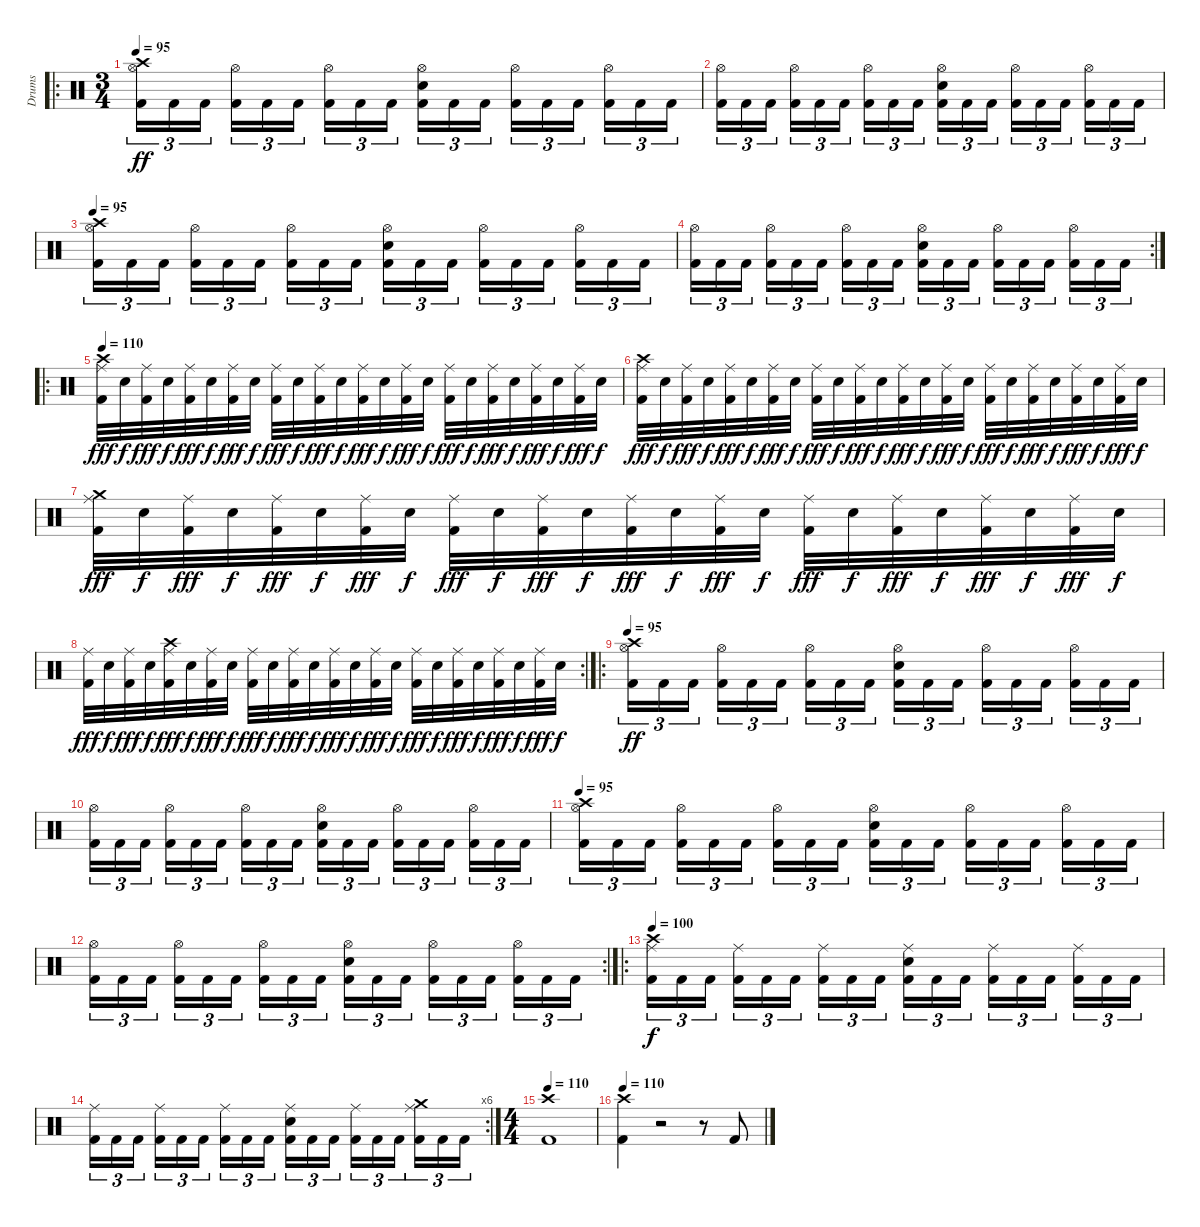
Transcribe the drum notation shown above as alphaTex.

\track ("Drums" "Drums") {instrument percussion}
\staff {score}
\articulation defaults
\ro
\ts (3 4)
\tempo 95
\clef neutral
\ks c
("Crash high (hit)" "Hi-Hat (open)" "Kick (hit) 2").16{tu (3 2) dy ff} "Kick (hit) 2".16{tu (3 2)} "Kick (hit) 2".16{tu (3 2)} ("Hi-Hat (open)" "Kick (hit) 2").16{tu (3 2)} "Kick (hit) 2".16{tu (3 2)} "Kick (hit) 2".16{tu (3 2)} ("Hi-Hat (open)" "Kick (hit) 2").16{tu (3 2)} "Kick (hit) 2".16{tu (3 2)} "Kick (hit) 2".16{tu (3 2)} ("Hi-Hat (open)" "Electric Snare (hit)" "Kick (hit) 2").16{tu (3 2)} "Kick (hit) 2".16{tu (3 2)} "Kick (hit) 2".16{tu (3 2)} ("Hi-Hat (open)" "Kick (hit) 2").16{tu (3 2)} "Kick (hit) 2".16{tu (3 2)} "Kick (hit) 2".16{tu (3 2)} ("Hi-Hat (open)" "Kick (hit) 2").16{tu (3 2)} "Kick (hit) 2".16{tu (3 2)} "Kick (hit) 2".16{tu (3 2)} |
("Hi-Hat (open)" "Kick (hit) 2").16{tu (3 2)} "Kick (hit) 2".16{tu (3 2)} "Kick (hit) 2".16{tu (3 2)} ("Hi-Hat (open)" "Kick (hit) 2").16{tu (3 2)} "Kick (hit) 2".16{tu (3 2)} "Kick (hit) 2".16{tu (3 2)} ("Hi-Hat (open)" "Kick (hit) 2").16{tu (3 2)} "Kick (hit) 2".16{tu (3 2)} "Kick (hit) 2".16{tu (3 2)} ("Hi-Hat (open)" "Electric Snare (hit)" "Kick (hit) 2").16{tu (3 2)} "Kick (hit) 2".16{tu (3 2)} "Kick (hit) 2".16{tu (3 2)} ("Hi-Hat (open)" "Kick (hit) 2").16{tu (3 2)} "Kick (hit) 2".16{tu (3 2)} "Kick (hit) 2".16{tu (3 2)} ("Hi-Hat (open)" "Kick (hit) 2").16{tu (3 2)} "Kick (hit) 2".16{tu (3 2)} "Kick (hit) 2".16{tu (3 2)} |
\tempo 95
("Crash high (hit)" "Hi-Hat (open)" "Kick (hit) 2").16{tu (3 2)} "Kick (hit) 2".16{tu (3 2)} "Kick (hit) 2".16{tu (3 2)} ("Hi-Hat (open)" "Kick (hit) 2").16{tu (3 2)} "Kick (hit) 2".16{tu (3 2)} "Kick (hit) 2".16{tu (3 2)} ("Hi-Hat (open)" "Kick (hit) 2").16{tu (3 2)} "Kick (hit) 2".16{tu (3 2)} "Kick (hit) 2".16{tu (3 2)} ("Hi-Hat (open)" "Electric Snare (hit)" "Kick (hit) 2").16{tu (3 2)} "Kick (hit) 2".16{tu (3 2)} "Kick (hit) 2".16{tu (3 2)} ("Hi-Hat (open)" "Kick (hit) 2").16{tu (3 2)} "Kick (hit) 2".16{tu (3 2)} "Kick (hit) 2".16{tu (3 2)} ("Hi-Hat (open)" "Kick (hit) 2").16{tu (3 2)} "Kick (hit) 2".16{tu (3 2)} "Kick (hit) 2".16{tu (3 2)} |
\rc 2
("Hi-Hat (open)" "Kick (hit) 2").16{tu (3 2)} "Kick (hit) 2".16{tu (3 2)} "Kick (hit) 2".16{tu (3 2)} ("Hi-Hat (open)" "Kick (hit) 2").16{tu (3 2)} "Kick (hit) 2".16{tu (3 2)} "Kick (hit) 2".16{tu (3 2)} ("Hi-Hat (open)" "Kick (hit) 2").16{tu (3 2)} "Kick (hit) 2".16{tu (3 2)} "Kick (hit) 2".16{tu (3 2)} ("Hi-Hat (open)" "Electric Snare (hit)" "Kick (hit) 2").16{tu (3 2)} "Kick (hit) 2".16{tu (3 2)} "Kick (hit) 2".16{tu (3 2)} ("Hi-Hat (open)" "Kick (hit) 2").16{tu (3 2)} "Kick (hit) 2".16{tu (3 2)} "Kick (hit) 2".16{tu (3 2)} ("Hi-Hat (open)" "Kick (hit) 2").16{tu (3 2)} "Kick (hit) 2".16{tu (3 2)} "Kick (hit) 2".16{tu (3 2)} |
\ro
\tempo 110
("Crash high (hit)" "Ride (middle)" "Kick (hit) 2").32{dy fff} "Electric Snare (hit)".32{dy f} ("Ride (middle)" "Kick (hit) 2").32{dy fff} "Electric Snare (hit)".32{dy f} ("Ride (middle)" "Kick (hit) 2").32{dy fff} "Electric Snare (hit)".32{dy f} ("Ride (middle)" "Kick (hit) 2").32{dy fff} "Electric Snare (hit)".32{dy f} ("Ride (middle)" "Kick (hit) 2").32{dy fff} "Electric Snare (hit)".32{dy f} ("Ride (middle)" "Kick (hit) 2").32{dy fff} "Electric Snare (hit)".32{dy f} ("Ride (middle)" "Kick (hit) 2").32{dy fff} "Electric Snare (hit)".32{dy f} ("Ride (middle)" "Kick (hit) 2").32{dy fff} "Electric Snare (hit)".32{dy f} ("Ride (middle)" "Kick (hit) 2").32{dy fff} "Electric Snare (hit)".32{dy f} ("Ride (middle)" "Kick (hit) 2").32{dy fff} "Electric Snare (hit)".32{dy f} ("Ride (middle)" "Kick (hit) 2").32{dy fff} "Electric Snare (hit)".32{dy f} ("Ride (middle)" "Kick (hit) 2").32{dy fff} "Electric Snare (hit)".32{dy f} |
("Crash high (hit)" "Ride (middle)" "Kick (hit) 2").32{dy fff} "Electric Snare (hit)".32{dy f} ("Ride (middle)" "Kick (hit) 2").32{dy fff} "Electric Snare (hit)".32{dy f} ("Ride (middle)" "Kick (hit) 2").32{dy fff} "Electric Snare (hit)".32{dy f} ("Ride (middle)" "Kick (hit) 2").32{dy fff} "Electric Snare (hit)".32{dy f} ("Ride (middle)" "Kick (hit) 2").32{dy fff} "Electric Snare (hit)".32{dy f} ("Ride (middle)" "Kick (hit) 2").32{dy fff} "Electric Snare (hit)".32{dy f} ("Ride (middle)" "Kick (hit) 2").32{dy fff} "Electric Snare (hit)".32{dy f} ("Ride (middle)" "Kick (hit) 2").32{dy fff} "Electric Snare (hit)".32{dy f} ("Ride (middle)" "Kick (hit) 2").32{dy fff} "Electric Snare (hit)".32{dy f} ("Ride (middle)" "Kick (hit) 2").32{dy fff} "Electric Snare (hit)".32{dy f} ("Ride (middle)" "Kick (hit) 2").32{dy fff} "Electric Snare (hit)".32{dy f} ("Ride (middle)" "Kick (hit) 2").32{dy fff} "Electric Snare (hit)".32{dy f} |
("Crash medium (hit)" "Ride (middle)" "Kick (hit) 2").32{dy fff} "Electric Snare (hit)".32{dy f} ("Ride (middle)" "Kick (hit) 2").32{dy fff} "Electric Snare (hit)".32{dy f} ("Ride (middle)" "Kick (hit) 2").32{dy fff} "Electric Snare (hit)".32{dy f} ("Ride (middle)" "Kick (hit) 2").32{dy fff} "Electric Snare (hit)".32{dy f} ("Ride (middle)" "Kick (hit) 2").32{dy fff} "Electric Snare (hit)".32{dy f} ("Ride (middle)" "Kick (hit) 2").32{dy fff} "Electric Snare (hit)".32{dy f} ("Ride (middle)" "Kick (hit) 2").32{dy fff} "Electric Snare (hit)".32{dy f} ("Ride (middle)" "Kick (hit) 2").32{dy fff} "Electric Snare (hit)".32{dy f} ("Ride (middle)" "Kick (hit) 2").32{dy fff} "Electric Snare (hit)".32{dy f} ("Ride (middle)" "Kick (hit) 2").32{dy fff} "Electric Snare (hit)".32{dy f} ("Ride (middle)" "Kick (hit) 2").32{dy fff} "Electric Snare (hit)".32{dy f} ("Ride (middle)" "Kick (hit) 2").32{dy fff} "Electric Snare (hit)".32{dy f} |
\rc 2
("Ride (middle)" "Kick (hit) 2").32{dy fff} "Electric Snare (hit)".32{dy f} ("Ride (middle)" "Kick (hit) 2").32{dy fff} "Electric Snare (hit)".32{dy f} ("Crash high (hit)" "Ride (middle)" "Kick (hit) 2").32{dy fff} "Electric Snare (hit)".32{dy f} ("Ride (middle)" "Kick (hit) 2").32{dy fff} "Electric Snare (hit)".32{dy f} ("Ride (middle)" "Kick (hit) 2").32{dy fff} "Electric Snare (hit)".32{dy f} ("Ride (middle)" "Kick (hit) 2").32{dy fff} "Electric Snare (hit)".32{dy f} ("Ride (middle)" "Kick (hit) 2").32{dy fff} "Electric Snare (hit)".32{dy f} ("Ride (middle)" "Kick (hit) 2").32{dy fff} "Electric Snare (hit)".32{dy f} ("Ride (middle)" "Kick (hit) 2").32{dy fff} "Electric Snare (hit)".32{dy f} ("Ride (middle)" "Kick (hit) 2").32{dy fff} "Electric Snare (hit)".32{dy f} ("Ride (middle)" "Kick (hit) 2").32{dy fff} "Electric Snare (hit)".32{dy f} ("Ride (middle)" "Kick (hit) 2").32{dy fff} "Electric Snare (hit)".32{dy f} |
\ro
\tempo 95
("Crash high (hit)" "Hi-Hat (open)" "Kick (hit) 2").16{tu (3 2) dy ff} "Kick (hit) 2".16{tu (3 2)} "Kick (hit) 2".16{tu (3 2)} ("Hi-Hat (open)" "Kick (hit) 2").16{tu (3 2)} "Kick (hit) 2".16{tu (3 2)} "Kick (hit) 2".16{tu (3 2)} ("Hi-Hat (open)" "Kick (hit) 2").16{tu (3 2)} "Kick (hit) 2".16{tu (3 2)} "Kick (hit) 2".16{tu (3 2)} ("Hi-Hat (open)" "Electric Snare (hit)" "Kick (hit) 2").16{tu (3 2)} "Kick (hit) 2".16{tu (3 2)} "Kick (hit) 2".16{tu (3 2)} ("Hi-Hat (open)" "Kick (hit) 2").16{tu (3 2)} "Kick (hit) 2".16{tu (3 2)} "Kick (hit) 2".16{tu (3 2)} ("Hi-Hat (open)" "Kick (hit) 2").16{tu (3 2)} "Kick (hit) 2".16{tu (3 2)} "Kick (hit) 2".16{tu (3 2)} |
("Hi-Hat (open)" "Kick (hit) 2").16{tu (3 2)} "Kick (hit) 2".16{tu (3 2)} "Kick (hit) 2".16{tu (3 2)} ("Hi-Hat (open)" "Kick (hit) 2").16{tu (3 2)} "Kick (hit) 2".16{tu (3 2)} "Kick (hit) 2".16{tu (3 2)} ("Hi-Hat (open)" "Kick (hit) 2").16{tu (3 2)} "Kick (hit) 2".16{tu (3 2)} "Kick (hit) 2".16{tu (3 2)} ("Hi-Hat (open)" "Electric Snare (hit)" "Kick (hit) 2").16{tu (3 2)} "Kick (hit) 2".16{tu (3 2)} "Kick (hit) 2".16{tu (3 2)} ("Hi-Hat (open)" "Kick (hit) 2").16{tu (3 2)} "Kick (hit) 2".16{tu (3 2)} "Kick (hit) 2".16{tu (3 2)} ("Hi-Hat (open)" "Kick (hit) 2").16{tu (3 2)} "Kick (hit) 2".16{tu (3 2)} "Kick (hit) 2".16{tu (3 2)} |
\tempo 95
("Crash high (hit)" "Hi-Hat (open)" "Kick (hit) 2").16{tu (3 2)} "Kick (hit) 2".16{tu (3 2)} "Kick (hit) 2".16{tu (3 2)} ("Hi-Hat (open)" "Kick (hit) 2").16{tu (3 2)} "Kick (hit) 2".16{tu (3 2)} "Kick (hit) 2".16{tu (3 2)} ("Hi-Hat (open)" "Kick (hit) 2").16{tu (3 2)} "Kick (hit) 2".16{tu (3 2)} "Kick (hit) 2".16{tu (3 2)} ("Hi-Hat (open)" "Electric Snare (hit)" "Kick (hit) 2").16{tu (3 2)} "Kick (hit) 2".16{tu (3 2)} "Kick (hit) 2".16{tu (3 2)} ("Hi-Hat (open)" "Kick (hit) 2").16{tu (3 2)} "Kick (hit) 2".16{tu (3 2)} "Kick (hit) 2".16{tu (3 2)} ("Hi-Hat (open)" "Kick (hit) 2").16{tu (3 2)} "Kick (hit) 2".16{tu (3 2)} "Kick (hit) 2".16{tu (3 2)} |
\rc 2
("Hi-Hat (open)" "Kick (hit) 2").16{tu (3 2)} "Kick (hit) 2".16{tu (3 2)} "Kick (hit) 2".16{tu (3 2)} ("Hi-Hat (open)" "Kick (hit) 2").16{tu (3 2)} "Kick (hit) 2".16{tu (3 2)} "Kick (hit) 2".16{tu (3 2)} ("Hi-Hat (open)" "Kick (hit) 2").16{tu (3 2)} "Kick (hit) 2".16{tu (3 2)} "Kick (hit) 2".16{tu (3 2)} ("Hi-Hat (open)" "Electric Snare (hit)" "Kick (hit) 2").16{tu (3 2)} "Kick (hit) 2".16{tu (3 2)} "Kick (hit) 2".16{tu (3 2)} ("Hi-Hat (open)" "Kick (hit) 2").16{tu (3 2)} "Kick (hit) 2".16{tu (3 2)} "Kick (hit) 2".16{tu (3 2)} ("Hi-Hat (open)" "Kick (hit) 2").16{tu (3 2)} "Kick (hit) 2".16{tu (3 2)} "Kick (hit) 2".16{tu (3 2)} |
\ro
\tempo 100
("Crash high (hit)" "Ride (middle)" "Kick (hit) 2").16{tu (3 2) dy f} "Kick (hit) 2".16{tu (3 2)} "Kick (hit) 2".16{tu (3 2)} ("Ride (middle)" "Kick (hit) 2").16{tu (3 2)} "Kick (hit) 2".16{tu (3 2)} "Kick (hit) 2".16{tu (3 2)} ("Ride (middle)" "Kick (hit) 2").16{tu (3 2)} "Kick (hit) 2".16{tu (3 2)} "Kick (hit) 2".16{tu (3 2)} ("Ride (middle)" "Electric Snare (hit)" "Kick (hit) 2").16{tu (3 2)} "Kick (hit) 2".16{tu (3 2)} "Kick (hit) 2".16{tu (3 2)} ("Ride (middle)" "Kick (hit) 2").16{tu (3 2)} "Kick (hit) 2".16{tu (3 2)} "Kick (hit) 2".16{tu (3 2)} ("Ride (middle)" "Kick (hit) 2").16{tu (3 2)} "Kick (hit) 2".16{tu (3 2)} "Kick (hit) 2".16{tu (3 2)} |
\rc 6
("Ride (middle)" "Kick (hit) 2").16{tu (3 2)} "Kick (hit) 2".16{tu (3 2)} "Kick (hit) 2".16{tu (3 2)} ("Ride (middle)" "Kick (hit) 2").16{tu (3 2)} "Kick (hit) 2".16{tu (3 2)} "Kick (hit) 2".16{tu (3 2)} ("Ride (middle)" "Kick (hit) 2").16{tu (3 2)} "Kick (hit) 2".16{tu (3 2)} "Kick (hit) 2".16{tu (3 2)} ("Ride (middle)" "Electric Snare (hit)" "Kick (hit) 2").16{tu (3 2)} "Kick (hit) 2".16{tu (3 2)} "Kick (hit) 2".16{tu (3 2)} ("Ride (middle)" "Kick (hit) 2").16{tu (3 2)} "Kick (hit) 2".16{tu (3 2)} "Kick (hit) 2".16{tu (3 2)} ("Crash medium (hit)" "Ride (middle)" "Kick (hit) 2").16{tu (3 2)} "Kick (hit) 2".16{tu (3 2)} "Kick (hit) 2".16{tu (3 2)} |
\ts (4 4)
\tempo 110
("Crash high (hit)" "Kick (hit) 2").1 |
\tempo 110
("Crash high (hit)" "Kick (hit) 2").4 r.2 r.8 "Kick (hit) 2".8
